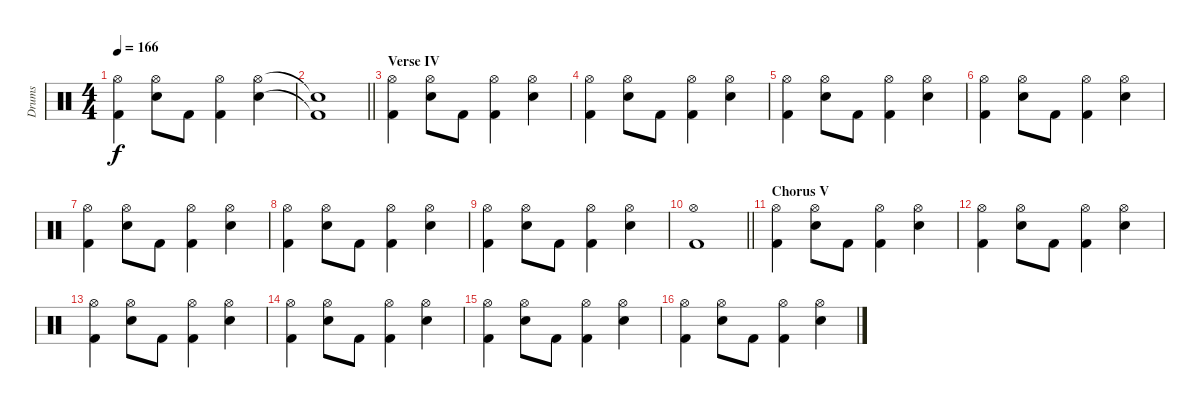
\track ("Drums" "Drums") {instrument percussion}
\staff {score}
\articulation defaults
\ts (4 4)
\tempo 166
\clef neutral
\ks c
("Hi-Hat (open)" "Kick (hit) 2").4{dy f} ("Hi-Hat (open)" "Snare (hit) 2").8 "Kick (hit) 2".8 ("Hi-Hat (open)" "Kick (hit) 2").4 ("Hi-Hat (open)" "Snare (hit) 2").4 |
\barLineRight lightlight
("Snare (hit)"{t} "Kick (hit) 2"{t}).1 |
\section ("" "Verse IV")
("Hi-Hat (open)" "Kick (hit) 2").4 ("Hi-Hat (open)" "Snare (hit) 2").8 "Kick (hit) 2".8 ("Hi-Hat (open)" "Kick (hit) 2").4 ("Hi-Hat (open)" "Snare (hit) 2").4 |
("Hi-Hat (open)" "Kick (hit) 2").4 ("Hi-Hat (open)" "Snare (hit) 2").8 "Kick (hit) 2".8 ("Hi-Hat (open)" "Kick (hit) 2").4 ("Hi-Hat (open)" "Snare (hit) 2").4 |
("Hi-Hat (open)" "Kick (hit) 2").4 ("Hi-Hat (open)" "Snare (hit) 2").8 "Kick (hit) 2".8 ("Hi-Hat (open)" "Kick (hit) 2").4 ("Hi-Hat (open)" "Snare (hit) 2").4 |
("Hi-Hat (open)" "Kick (hit) 2").4 ("Hi-Hat (open)" "Snare (hit) 2").8 "Kick (hit) 2".8 ("Hi-Hat (open)" "Kick (hit) 2").4 ("Hi-Hat (open)" "Snare (hit) 2").4 |
("Hi-Hat (open)" "Kick (hit) 2").4 ("Hi-Hat (open)" "Snare (hit) 2").8 "Kick (hit) 2".8 ("Hi-Hat (open)" "Kick (hit) 2").4 ("Hi-Hat (open)" "Snare (hit) 2").4 |
("Hi-Hat (open)" "Kick (hit) 2").4 ("Hi-Hat (open)" "Snare (hit) 2").8 "Kick (hit) 2".8 ("Hi-Hat (open)" "Kick (hit) 2").4 ("Hi-Hat (open)" "Snare (hit) 2").4 |
("Hi-Hat (open)" "Kick (hit) 2").4 ("Hi-Hat (open)" "Snare (hit) 2").8 "Kick (hit) 2".8 ("Hi-Hat (open)" "Kick (hit) 2").4 ("Hi-Hat (open)" "Snare (hit) 2").4 |
\barLineRight lightlight
("Hi-Hat (open)" "Kick (hit) 2").1 |
\section ("" "Chorus V")
("Hi-Hat (open)" "Kick (hit) 2").4 ("Hi-Hat (open)" "Snare (hit) 2").8 "Kick (hit) 2".8 ("Hi-Hat (open)" "Kick (hit) 2").4 ("Hi-Hat (open)" "Snare (hit) 2").4 |
("Hi-Hat (open)" "Kick (hit) 2").4 ("Hi-Hat (open)" "Snare (hit) 2").8 "Kick (hit) 2".8 ("Hi-Hat (open)" "Kick (hit) 2").4 ("Hi-Hat (open)" "Snare (hit) 2").4 |
("Hi-Hat (open)" "Kick (hit) 2").4 ("Hi-Hat (open)" "Snare (hit) 2").8 "Kick (hit) 2".8 ("Hi-Hat (open)" "Kick (hit) 2").4 ("Hi-Hat (open)" "Snare (hit) 2").4 |
("Hi-Hat (open)" "Kick (hit) 2").4 ("Hi-Hat (open)" "Snare (hit) 2").8 "Kick (hit) 2".8 ("Hi-Hat (open)" "Kick (hit) 2").4 ("Hi-Hat (open)" "Snare (hit) 2").4 |
("Hi-Hat (open)" "Kick (hit) 2").4 ("Hi-Hat (open)" "Snare (hit) 2").8 "Kick (hit) 2".8 ("Hi-Hat (open)" "Kick (hit) 2").4 ("Hi-Hat (open)" "Snare (hit) 2").4 |
("Hi-Hat (open)" "Kick (hit) 2").4 ("Hi-Hat (open)" "Snare (hit) 2").8 "Kick (hit) 2".8 ("Hi-Hat (open)" "Kick (hit) 2").4 ("Hi-Hat (open)" "Snare (hit) 2").4
